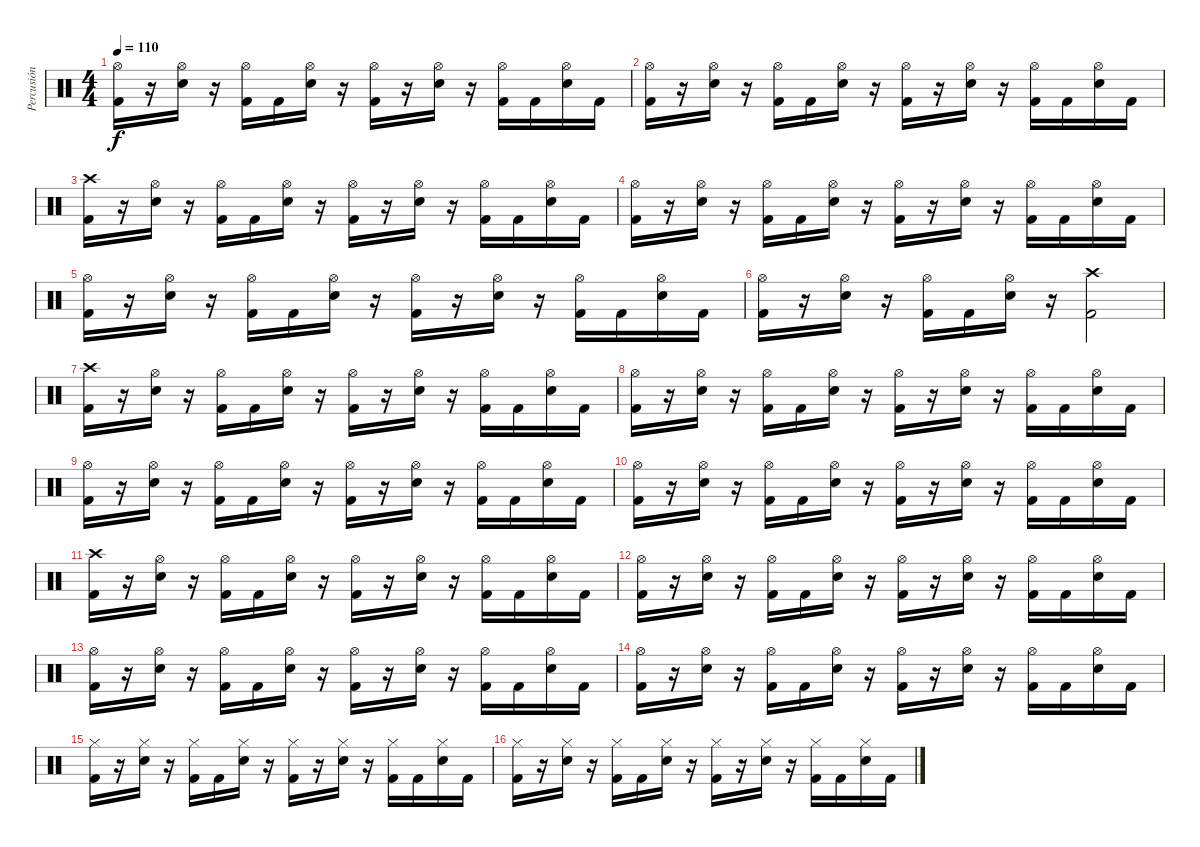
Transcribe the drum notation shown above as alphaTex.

\track ("Percusión" "Percusión") {instrument percussion}
\staff {score}
\articulation defaults
\ts (4 4)
\tempo 110
\clef neutral
\ks c
("Hi-Hat (open)" "Kick (hit) 2").16{dy f} r.16 ("Hi-Hat (open)" "Electric Snare (hit)").16 r.16 ("Hi-Hat (open)" "Kick (hit) 2").16 "Kick (hit) 2".16 ("Hi-Hat (open)" "Electric Snare (hit)").16 r.16 ("Hi-Hat (open)" "Kick (hit) 2").16 r.16 ("Hi-Hat (open)" "Electric Snare (hit)").16 r.16 ("Hi-Hat (open)" "Kick (hit) 2").16 "Kick (hit) 2".16 ("Hi-Hat (open)" "Electric Snare (hit)").16 "Kick (hit) 2".16 |
("Hi-Hat (open)" "Kick (hit) 2").16 r.16 ("Hi-Hat (open)" "Electric Snare (hit)").16 r.16 ("Hi-Hat (open)" "Kick (hit) 2").16 "Kick (hit) 2".16 ("Hi-Hat (open)" "Electric Snare (hit)").16 r.16 ("Hi-Hat (open)" "Kick (hit) 2").16 r.16 ("Hi-Hat (open)" "Electric Snare (hit)").16 r.16 ("Hi-Hat (open)" "Kick (hit) 2").16 "Kick (hit) 2".16 ("Hi-Hat (open)" "Electric Snare (hit)").16 "Kick (hit) 2".16 |
("Crash high (hit)" "Kick (hit) 2").16 r.16 ("Hi-Hat (open)" "Electric Snare (hit)").16 r.16 ("Hi-Hat (open)" "Kick (hit) 2").16 "Kick (hit) 2".16 ("Hi-Hat (open)" "Electric Snare (hit)").16 r.16 ("Hi-Hat (open)" "Kick (hit) 2").16 r.16 ("Hi-Hat (open)" "Electric Snare (hit)").16 r.16 ("Hi-Hat (open)" "Kick (hit) 2").16 "Kick (hit) 2".16 ("Hi-Hat (open)" "Electric Snare (hit)").16 "Kick (hit) 2".16 |
("Hi-Hat (open)" "Kick (hit) 2").16 r.16 ("Hi-Hat (open)" "Electric Snare (hit)").16 r.16 ("Hi-Hat (open)" "Kick (hit) 2").16 "Kick (hit) 2".16 ("Hi-Hat (open)" "Electric Snare (hit)").16 r.16 ("Hi-Hat (open)" "Kick (hit) 2").16 r.16 ("Hi-Hat (open)" "Electric Snare (hit)").16 r.16 ("Hi-Hat (open)" "Kick (hit) 2").16 "Kick (hit) 2".16 ("Hi-Hat (open)" "Electric Snare (hit)").16 "Kick (hit) 2".16 |
("Hi-Hat (open)" "Kick (hit) 2").16 r.16 ("Hi-Hat (open)" "Electric Snare (hit)").16 r.16 ("Hi-Hat (open)" "Kick (hit) 2").16 "Kick (hit) 2".16 ("Hi-Hat (open)" "Electric Snare (hit)").16 r.16 ("Hi-Hat (open)" "Kick (hit) 2").16 r.16 ("Hi-Hat (open)" "Electric Snare (hit)").16 r.16 ("Hi-Hat (open)" "Kick (hit) 2").16 "Kick (hit) 2".16 ("Hi-Hat (open)" "Electric Snare (hit)").16 "Kick (hit) 2".16 |
("Hi-Hat (open)" "Kick (hit) 2").16 r.16 ("Hi-Hat (open)" "Electric Snare (hit)").16 r.16 ("Hi-Hat (open)" "Kick (hit) 2").16 "Kick (hit) 2".16 ("Hi-Hat (open)" "Electric Snare (hit)").16 r.16 ("Crash high (hit)" "Kick (hit) 2").2 |
("Crash high (hit)" "Kick (hit) 2").16 r.16 ("Hi-Hat (open)" "Electric Snare (hit)").16 r.16 ("Hi-Hat (open)" "Kick (hit) 2").16 "Kick (hit) 2".16 ("Hi-Hat (open)" "Electric Snare (hit)").16 r.16 ("Hi-Hat (open)" "Kick (hit) 2").16 r.16 ("Hi-Hat (open)" "Electric Snare (hit)").16 r.16 ("Hi-Hat (open)" "Kick (hit) 2").16 "Kick (hit) 2".16 ("Hi-Hat (open)" "Electric Snare (hit)").16 "Kick (hit) 2".16 |
("Hi-Hat (open)" "Kick (hit) 2").16 r.16 ("Hi-Hat (open)" "Electric Snare (hit)").16 r.16 ("Hi-Hat (open)" "Kick (hit) 2").16 "Kick (hit) 2".16 ("Hi-Hat (open)" "Electric Snare (hit)").16 r.16 ("Hi-Hat (open)" "Kick (hit) 2").16 r.16 ("Hi-Hat (open)" "Electric Snare (hit)").16 r.16 ("Hi-Hat (open)" "Kick (hit) 2").16 "Kick (hit) 2".16 ("Hi-Hat (open)" "Electric Snare (hit)").16 "Kick (hit) 2".16 |
("Hi-Hat (open)" "Kick (hit) 2").16 r.16 ("Hi-Hat (open)" "Electric Snare (hit)").16 r.16 ("Hi-Hat (open)" "Kick (hit) 2").16 "Kick (hit) 2".16 ("Hi-Hat (open)" "Electric Snare (hit)").16 r.16 ("Hi-Hat (open)" "Kick (hit) 2").16 r.16 ("Hi-Hat (open)" "Electric Snare (hit)").16 r.16 ("Hi-Hat (open)" "Kick (hit) 2").16 "Kick (hit) 2".16 ("Hi-Hat (open)" "Electric Snare (hit)").16 "Kick (hit) 2".16 |
("Hi-Hat (open)" "Kick (hit) 2").16 r.16 ("Hi-Hat (open)" "Electric Snare (hit)").16 r.16 ("Hi-Hat (open)" "Kick (hit) 2").16 "Kick (hit) 2".16 ("Hi-Hat (open)" "Electric Snare (hit)").16 r.16 ("Hi-Hat (open)" "Kick (hit) 2").16 r.16 ("Hi-Hat (open)" "Electric Snare (hit)").16 r.16 ("Hi-Hat (open)" "Kick (hit) 2").16 "Kick (hit) 2".16 ("Hi-Hat (open)" "Electric Snare (hit)").16 "Kick (hit) 2".16 |
("Crash high (hit)" "Kick (hit) 2").16 r.16 ("Hi-Hat (open)" "Electric Snare (hit)").16 r.16 ("Hi-Hat (open)" "Kick (hit) 2").16 "Kick (hit) 2".16 ("Hi-Hat (open)" "Electric Snare (hit)").16 r.16 ("Hi-Hat (open)" "Kick (hit) 2").16 r.16 ("Hi-Hat (open)" "Electric Snare (hit)").16 r.16 ("Hi-Hat (open)" "Kick (hit) 2").16 "Kick (hit) 2".16 ("Hi-Hat (open)" "Electric Snare (hit)").16 "Kick (hit) 2".16 |
("Hi-Hat (open)" "Kick (hit) 2").16 r.16 ("Hi-Hat (open)" "Electric Snare (hit)").16 r.16 ("Hi-Hat (open)" "Kick (hit) 2").16 "Kick (hit) 2".16 ("Hi-Hat (open)" "Electric Snare (hit)").16 r.16 ("Hi-Hat (open)" "Kick (hit) 2").16 r.16 ("Hi-Hat (open)" "Electric Snare (hit)").16 r.16 ("Hi-Hat (open)" "Kick (hit) 2").16 "Kick (hit) 2".16 ("Hi-Hat (open)" "Electric Snare (hit)").16 "Kick (hit) 2".16 |
("Hi-Hat (open)" "Kick (hit) 2").16 r.16 ("Hi-Hat (open)" "Electric Snare (hit)").16 r.16 ("Hi-Hat (open)" "Kick (hit) 2").16 "Kick (hit) 2".16 ("Hi-Hat (open)" "Electric Snare (hit)").16 r.16 ("Hi-Hat (open)" "Kick (hit) 2").16 r.16 ("Hi-Hat (open)" "Electric Snare (hit)").16 r.16 ("Hi-Hat (open)" "Kick (hit) 2").16 "Kick (hit) 2".16 ("Hi-Hat (open)" "Electric Snare (hit)").16 "Kick (hit) 2".16 |
("Hi-Hat (open)" "Kick (hit) 2").16 r.16 ("Hi-Hat (open)" "Electric Snare (hit)").16 r.16 ("Hi-Hat (open)" "Kick (hit) 2").16 "Kick (hit) 2".16 ("Hi-Hat (open)" "Electric Snare (hit)").16 r.16 ("Hi-Hat (open)" "Kick (hit) 2").16 r.16 ("Hi-Hat (open)" "Electric Snare (hit)").16 r.16 ("Hi-Hat (open)" "Kick (hit) 2").16 "Kick (hit) 2".16 ("Hi-Hat (open)" "Electric Snare (hit)").16 "Kick (hit) 2".16 |
("Hi-Hat (closed)" "Kick (hit) 2").16 r.16 ("Hi-Hat (closed)" "Electric Snare (hit)").16 r.16 ("Hi-Hat (closed)" "Kick (hit) 2").16 "Kick (hit) 2".16 ("Hi-Hat (closed)" "Electric Snare (hit)").16 r.16 ("Hi-Hat (closed)" "Kick (hit) 2").16 r.16 ("Hi-Hat (closed)" "Electric Snare (hit)").16 r.16 ("Hi-Hat (closed)" "Kick (hit) 2").16 "Kick (hit) 2".16 ("Hi-Hat (closed)" "Electric Snare (hit)").16 "Kick (hit) 2".16 |
("Hi-Hat (closed)" "Kick (hit) 2").16 r.16 ("Hi-Hat (closed)" "Electric Snare (hit)").16 r.16 ("Hi-Hat (closed)" "Kick (hit) 2").16 "Kick (hit) 2".16 ("Hi-Hat (closed)" "Electric Snare (hit)").16 r.16 ("Hi-Hat (closed)" "Kick (hit) 2").16 r.16 ("Hi-Hat (closed)" "Electric Snare (hit)").16 r.16 ("Hi-Hat (closed)" "Kick (hit) 2").16 "Kick (hit) 2".16 ("Hi-Hat (closed)" "Electric Snare (hit)").16 "Kick (hit) 2".16
